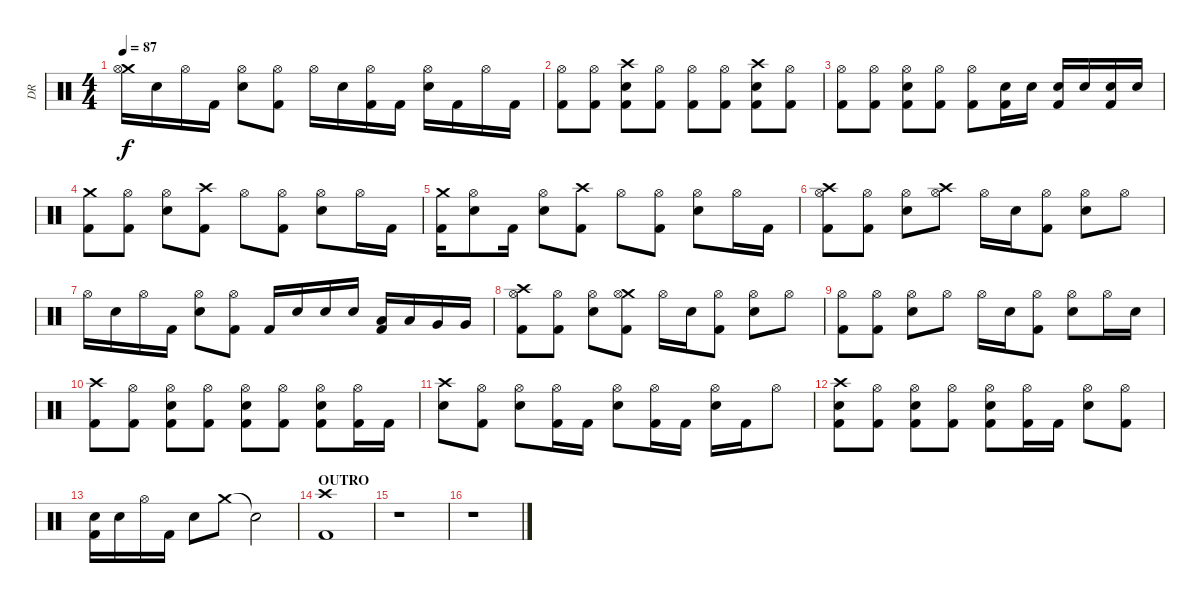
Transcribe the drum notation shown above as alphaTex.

\track ("DR" "DR") {instrument percussion}
\staff {score}
\articulation defaults
\ts (4 4)
\tempo 87
\clef neutral
\ks c
("Crash medium (hit)" "Hi-Hat (open)").16{dy f} "Electric Snare (hit)".16 "Hi-Hat (open)".16 "Kick (hit) 2".16 ("Hi-Hat (open)" "Electric Snare (hit)").8 ("Hi-Hat (open)" "Kick (hit) 2").8 "Hi-Hat (open)".16 "Electric Snare (hit)".16 ("Hi-Hat (open)" "Kick (hit) 2").16 "Kick (hit) 2".16 ("Hi-Hat (open)" "Electric Snare (hit)").16 "Kick (hit) 2".16 "Hi-Hat (open)".16 "Kick (hit) 2".16 |
("Hi-Hat (open)" "Kick (hit) 2").8 ("Hi-Hat (open)" "Kick (hit) 2").8 ("Crash high (hit)" "Electric Snare (hit)" "Kick (hit) 2").8 ("Hi-Hat (open)" "Kick (hit) 2").8 ("Hi-Hat (open)" "Kick (hit) 2").8 ("Hi-Hat (open)" "Kick (hit) 2").8 ("Crash high (hit)" "Electric Snare (hit)" "Kick (hit) 2").8 ("Hi-Hat (open)" "Kick (hit) 2").8 |
("Hi-Hat (open)" "Kick (hit) 2").8 ("Hi-Hat (open)" "Kick (hit) 2").8 ("Hi-Hat (open)" "Electric Snare (hit)" "Kick (hit) 2").8 ("Hi-Hat (open)" "Kick (hit) 2").8 ("Hi-Hat (open)" "Kick (hit) 2").8 ("Electric Snare (hit)" "Kick (hit) 2").16 "Electric Snare (hit)".16 ("Electric Snare (hit)" "Kick (hit) 2").16 "Electric Snare (hit)".16 ("Electric Snare (hit)" "Kick (hit) 2").16 "Electric Snare (hit)".16 |
("Crash medium (hit)" "Kick (hit) 2").8 ("Hi-Hat (open)" "Kick (hit) 2").8 ("Hi-Hat (open)" "Electric Snare (hit)").8 ("Crash high (hit)" "Kick (hit) 2").8 "Hi-Hat (open)".8 ("Hi-Hat (open)" "Kick (hit) 2").8 ("Hi-Hat (open)" "Electric Snare (hit)").8 "Hi-Hat (open)".16 "Kick (hit) 2".16 |
("Crash medium (hit)" "Kick (hit) 2").16 ("Hi-Hat (open)" "Electric Snare (hit)").8 "Kick (hit) 2".16 ("Hi-Hat (open)" "Electric Snare (hit)").8 ("Crash high (hit)" "Kick (hit) 2").8 "Hi-Hat (open)".8 ("Hi-Hat (open)" "Kick (hit) 2").8 ("Hi-Hat (open)" "Electric Snare (hit)").8 "Hi-Hat (open)".16 "Kick (hit) 2".16 |
("Crash high (hit)" "Hi-Hat (open)" "Kick (hit) 2").8 ("Hi-Hat (open)" "Kick (hit) 2").8 ("Hi-Hat (open)" "Electric Snare (hit)").8 ("Crash high (hit)" "Hi-Hat (open)").8 "Hi-Hat (open)".16 "Electric Snare (hit)".16 ("Hi-Hat (open)" "Kick (hit) 2").8 ("Hi-Hat (open)" "Electric Snare (hit)").8 "Hi-Hat (open)".8 |
"Hi-Hat (open)".16 "Electric Snare (hit)".16 "Hi-Hat (open)".16 "Kick (hit) 2".16 ("Hi-Hat (open)" "Electric Snare (hit)").8 ("Hi-Hat (open)" "Kick (hit) 2").8 "Kick (hit) 2".16 "Electric Snare (hit)".16 "Electric Snare (hit)".16 "Electric Snare (hit)".16 ("Low Tom (hit)" "Kick (hit) 2").16 "Low Tom (hit)".16 "Very Low Tom (hit)".16 "Very Low Tom (hit)".16 |
("Crash high (hit)" "Hi-Hat (open)" "Kick (hit) 2").8 ("Hi-Hat (open)" "Kick (hit) 2").8 ("Hi-Hat (open)" "Electric Snare (hit)").8 ("Crash medium (hit)" "Hi-Hat (open)" "Kick (hit) 2").8 "Hi-Hat (open)".16 "Electric Snare (hit)".16 ("Hi-Hat (open)" "Kick (hit) 2").8 ("Hi-Hat (open)" "Electric Snare (hit)").8 "Hi-Hat (open)".8 |
("Hi-Hat (open)" "Kick (hit) 2").8 ("Hi-Hat (open)" "Kick (hit) 2").8 ("Hi-Hat (open)" "Electric Snare (hit)").8 "Hi-Hat (open)".8 "Hi-Hat (open)".16 "Electric Snare (hit)".16 ("Hi-Hat (open)" "Kick (hit) 2").8 ("Hi-Hat (open)" "Electric Snare (hit)").8 "Hi-Hat (open)".16 "Electric Snare (hit)".16 |
("Crash high (hit)" "Kick (hit) 2").8 ("Hi-Hat (open)" "Kick (hit) 2").8 ("Hi-Hat (open)" "Electric Snare (hit)" "Kick (hit) 2").8 ("Hi-Hat (open)" "Kick (hit) 2").8 ("Hi-Hat (open)" "Electric Snare (hit)" "Kick (hit) 2").8 ("Hi-Hat (open)" "Kick (hit) 2").8 ("Hi-Hat (open)" "Electric Snare (hit)" "Kick (hit) 2").8 ("Hi-Hat (open)" "Kick (hit) 2").16 "Kick (hit) 2".16 |
("Crash high (hit)" "Electric Snare (hit)").8 ("Hi-Hat (open)" "Kick (hit) 2").8 ("Hi-Hat (open)" "Electric Snare (hit)").8 ("Hi-Hat (open)" "Kick (hit) 2").16 "Kick (hit) 2".16 ("Hi-Hat (open)" "Electric Snare (hit)").8 ("Hi-Hat (open)" "Kick (hit) 2").16 "Kick (hit) 2".16 ("Hi-Hat (open)" "Electric Snare (hit)").16 "Kick (hit) 2".16 "Hi-Hat (open)".8 |
("Crash high (hit)" "Electric Snare (hit)" "Kick (hit) 2").8 ("Hi-Hat (open)" "Kick (hit) 2").8 ("Hi-Hat (open)" "Electric Snare (hit)" "Kick (hit) 2").8 ("Hi-Hat (open)" "Kick (hit) 2").8 ("Hi-Hat (open)" "Electric Snare (hit)" "Kick (hit) 2").8 ("Hi-Hat (open)" "Kick (hit) 2").16 "Kick (hit) 2".16 ("Hi-Hat (open)" "Electric Snare (hit)").8 ("Hi-Hat (open)" "Kick (hit) 2").8 |
("Electric Snare (hit)" "Kick (hit) 2").16 "Electric Snare (hit)".16 "Hi-Hat (open)".16 "Kick (hit) 2".16 "Electric Snare (hit)".8 "Crash medium (hit)".8 "Snare (hit)"{t}.2 |
\section ("" "OUTRO")
("Crash high (hit)" "Kick (hit) 2").1 |
r.1 |
r.1
